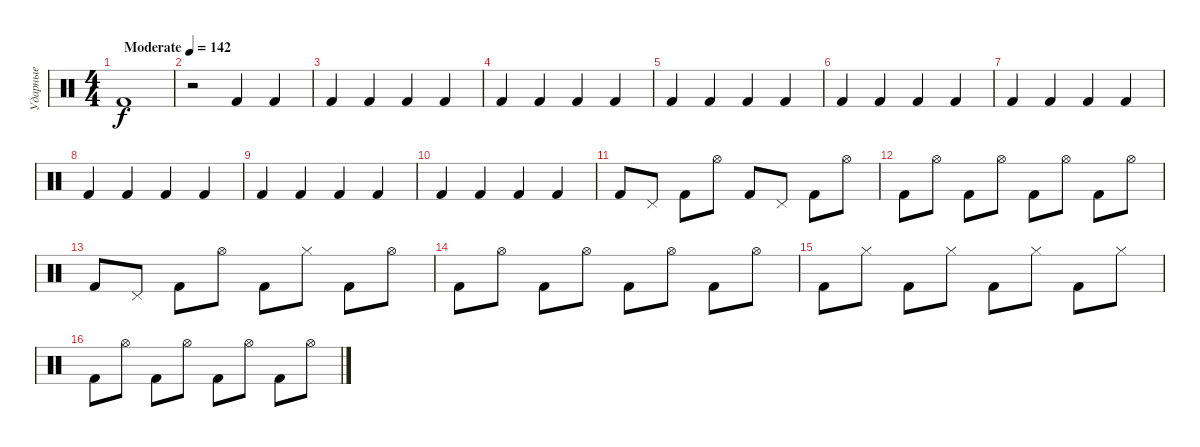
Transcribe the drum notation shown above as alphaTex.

\track ("Ударные" "Ударные") {instrument percussion}
\staff {score}
\articulation defaults
\ts (4 4)
\tempo (142 "Moderate")
\clef neutral
\ks c "Kick (hit) 2".1{dy f}
|
r.2 "Kick (hit) 2".4 "Kick (hit) 2".4 |
"Kick (hit) 2".4 "Kick (hit) 2".4 "Kick (hit) 2".4 "Kick (hit) 2".4 |
"Kick (hit) 2".4 "Kick (hit) 2".4 "Kick (hit) 2".4 "Kick (hit) 2".4 |
"Kick (hit) 2".4 "Kick (hit) 2".4 "Kick (hit) 2".4 "Kick (hit) 2".4 |
"Kick (hit) 2".4 "Kick (hit) 2".4 "Kick (hit) 2".4 "Kick (hit) 2".4 |
"Kick (hit) 2".4 "Kick (hit) 2".4 "Kick (hit) 2".4 "Kick (hit) 2".4 |
"Kick (hit) 2".4 "Kick (hit) 2".4 "Kick (hit) 2".4 "Kick (hit) 2".4 |
"Kick (hit) 2".4 "Kick (hit) 2".4 "Kick (hit) 2".4 "Kick (hit) 2".4 |
"Kick (hit) 2".4 "Kick (hit) 2".4 "Kick (hit) 2".4 "Kick (hit) 2".4 |
"Kick (hit) 2".8 "Pedal Hi-Hat (hit)".8 "Kick (hit) 2".8 "Hi-Hat (open)".8 "Kick (hit) 2".8 "Pedal Hi-Hat (hit)".8 "Kick (hit) 2".8 "Hi-Hat (open)".8 |
"Kick (hit) 2".8 "Hi-Hat (open)".8 "Kick (hit) 2".8 "Hi-Hat (open)".8 "Kick (hit) 2".8 "Hi-Hat (open)".8 "Kick (hit) 2".8 "Hi-Hat (open)".8 |
"Kick (hit) 2".8 "Pedal Hi-Hat (hit)".8 "Kick (hit) 2".8 "Hi-Hat (open)".8 "Kick (hit) 2".8 "Hi-Hat (closed)".8 "Kick (hit) 2".8 "Hi-Hat (open)".8 |
"Kick (hit) 2".8 "Hi-Hat (open)".8 "Kick (hit) 2".8 "Hi-Hat (open)".8 "Kick (hit) 2".8 "Hi-Hat (open)".8 "Kick (hit) 2".8 "Hi-Hat (open)".8 |
"Kick (hit) 2".8 "Hi-Hat (closed)".8 "Kick (hit) 2".8 "Hi-Hat (closed)".8 "Kick (hit) 2".8 "Hi-Hat (closed)".8 "Kick (hit) 2".8 "Hi-Hat (closed)".8 |
"Kick (hit) 2".8 "Hi-Hat (open)".8 "Kick (hit) 2".8 "Hi-Hat (open)".8 "Kick (hit) 2".8 "Hi-Hat (open)".8 "Kick (hit) 2".8 "Hi-Hat (open)".8
